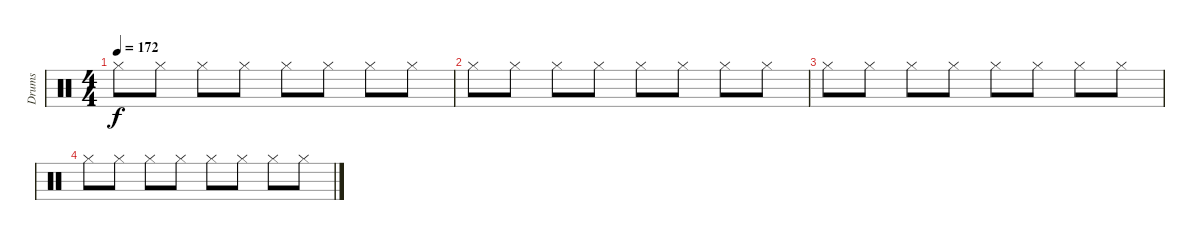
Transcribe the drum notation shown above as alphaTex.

\track ("Drums" "Drums") {instrument percussion}
\staff {score}
\articulation defaults
\ts (4 4)
\tempo 172
\clef neutral
\ks c "Hi-Hat (closed)".8{dy f} "Hi-Hat (closed)".8 "Hi-Hat (closed)".8 "Hi-Hat (closed)".8 "Hi-Hat (closed)".8 "Hi-Hat (closed)".8 "Hi-Hat (closed)".8 "Hi-Hat (closed)".8
|
"Hi-Hat (closed)".8 "Hi-Hat (closed)".8 "Hi-Hat (closed)".8 "Hi-Hat (closed)".8 "Hi-Hat (closed)".8 "Hi-Hat (closed)".8 "Hi-Hat (closed)".8 "Hi-Hat (closed)".8 |
"Hi-Hat (closed)".8 "Hi-Hat (closed)".8 "Hi-Hat (closed)".8 "Hi-Hat (closed)".8 "Hi-Hat (closed)".8 "Hi-Hat (closed)".8 "Hi-Hat (closed)".8 "Hi-Hat (closed)".8 |
"Hi-Hat (closed)".8 "Hi-Hat (closed)".8 "Hi-Hat (closed)".8 "Hi-Hat (closed)".8 "Hi-Hat (closed)".8 "Hi-Hat (closed)".8 "Hi-Hat (closed)".8 "Hi-Hat (closed)".8
